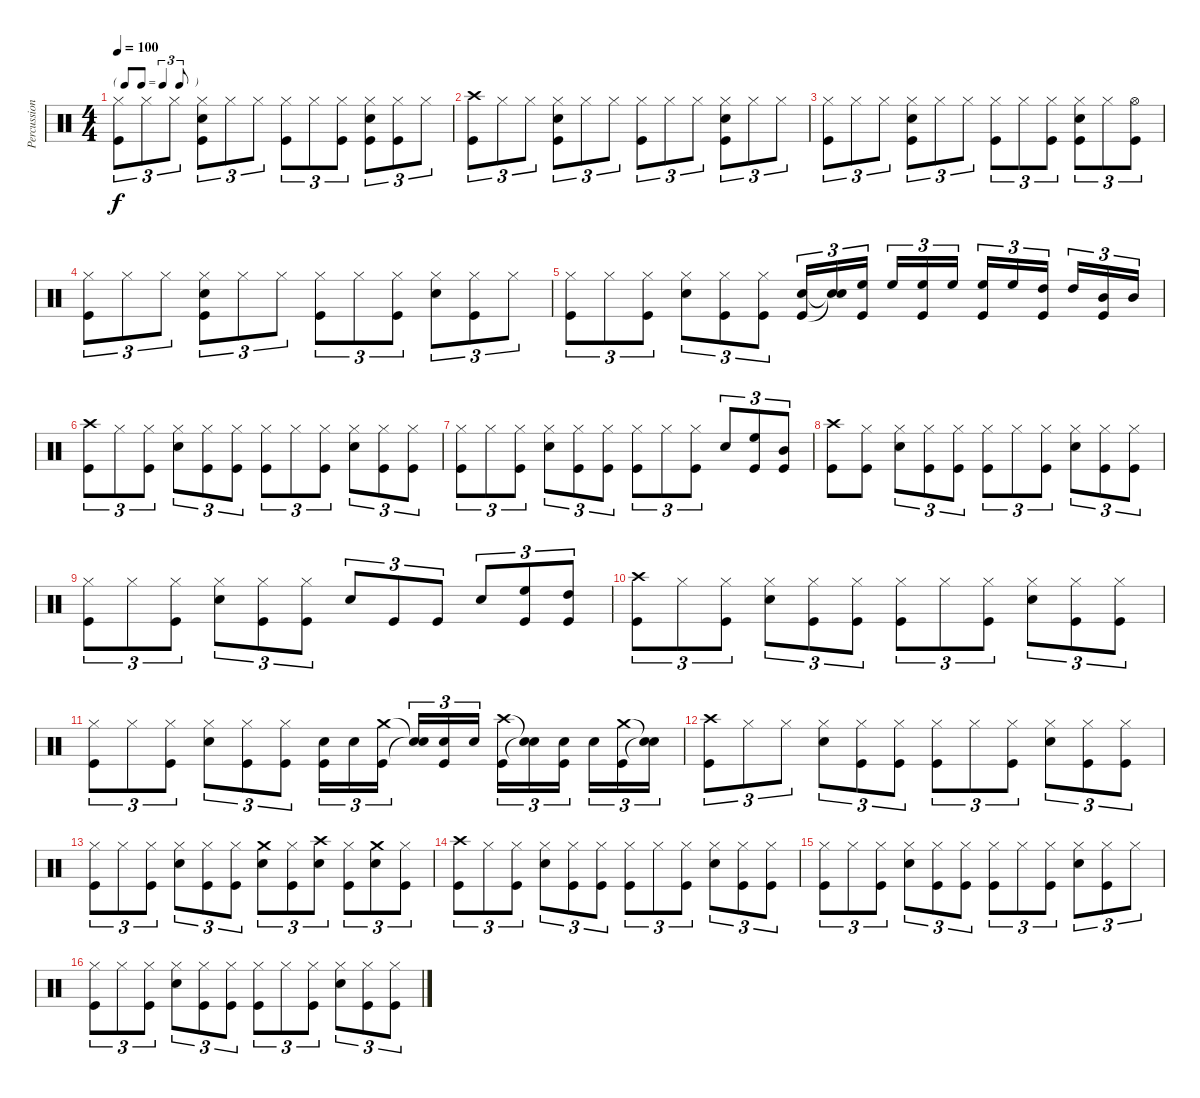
\track ("Percussions" "Percussion") {instrument percussion}
\staff {score}
\articulation defaults
\ts (4 4)
\tf triplet8th
\tempo 100
\clef neutral
\ks c
("Hi-Hat (closed)" "Kick (hit)").8{tu (3 2) dy f} "Hi-Hat (closed)".8{tu (3 2)} "Hi-Hat (closed)".8{tu (3 2)} ("Hi-Hat (closed)" "Snare (hit) 2" "Kick (hit)").8{tu (3 2)} "Hi-Hat (closed)".8{tu (3 2)} "Hi-Hat (closed)".8{tu (3 2)} ("Hi-Hat (closed)" "Kick (hit)").8{tu (3 2)} "Hi-Hat (closed)".8{tu (3 2)} ("Hi-Hat (closed)" "Kick (hit)").8{tu (3 2)} ("Hi-Hat (closed)" "Snare (hit) 2" "Kick (hit)").8{tu (3 2)} ("Hi-Hat (closed)" "Kick (hit)").8{tu (3 2)} "Hi-Hat (closed)".8{tu (3 2)} |
("Crash high (hit)" "Kick (hit)").8{tu (3 2)} "Hi-Hat (closed)".8{tu (3 2)} "Hi-Hat (closed)".8{tu (3 2)} ("Hi-Hat (closed)" "Snare (hit) 2" "Kick (hit)").8{tu (3 2)} "Hi-Hat (closed)".8{tu (3 2)} "Hi-Hat (closed)".8{tu (3 2)} ("Hi-Hat (closed)" "Kick (hit)").8{tu (3 2)} "Hi-Hat (closed)".8{tu (3 2)} "Hi-Hat (closed)".8{tu (3 2)} ("Hi-Hat (closed)" "Snare (hit) 2" "Kick (hit)").8{tu (3 2)} "Hi-Hat (closed)".8{tu (3 2)} "Hi-Hat (closed)".8{tu (3 2)} |
("Hi-Hat (closed)" "Kick (hit)").8{tu (3 2)} "Hi-Hat (closed)".8{tu (3 2)} "Hi-Hat (closed)".8{tu (3 2)} ("Hi-Hat (closed)" "Snare (hit) 2" "Kick (hit)").8{tu (3 2)} "Hi-Hat (closed)".8{tu (3 2)} "Hi-Hat (closed)".8{tu (3 2)} ("Hi-Hat (closed)" "Kick (hit)").8{tu (3 2)} "Hi-Hat (closed)".8{tu (3 2)} ("Hi-Hat (closed)" "Kick (hit)").8{tu (3 2)} ("Hi-Hat (closed)" "Snare (hit) 2" "Kick (hit)").8{tu (3 2)} "Hi-Hat (closed)".8{tu (3 2)} ("Hi-Hat (open)" "Kick (hit)").8{tu (3 2)} |
("Hi-Hat (closed)" "Kick (hit)").8{tu (3 2)} "Hi-Hat (closed)".8{tu (3 2)} "Hi-Hat (closed)".8{tu (3 2)} ("Hi-Hat (closed)" "Snare (hit) 2" "Kick (hit)").8{tu (3 2)} "Hi-Hat (closed)".8{tu (3 2)} "Hi-Hat (closed)".8{tu (3 2)} ("Hi-Hat (closed)" "Kick (hit)").8{tu (3 2)} "Hi-Hat (closed)".8{tu (3 2)} ("Hi-Hat (closed)" "Kick (hit)").8{tu (3 2)} ("Hi-Hat (closed)" "Snare (hit) 2").8{tu (3 2)} ("Hi-Hat (closed)" "Kick (hit)").8{tu (3 2)} "Hi-Hat (closed)".8{tu (3 2)} |
("Hi-Hat (closed)" "Kick (hit)").8{tu (3 2)} "Hi-Hat (closed)".8{tu (3 2)} ("Hi-Hat (closed)" "Kick (hit)").8{tu (3 2)} ("Hi-Hat (closed)" "Snare (hit) 2").8{tu (3 2)} ("Hi-Hat (closed)" "Kick (hit)").8{tu (3 2)} ("Hi-Hat (closed)" "Kick (hit)").8{tu (3 2)} ("Electric Snare (hit)" "Kick (hit)").16{tu (3 2)} ("Snare (hit)"{t} "Snare (hit)"{t}).16{tu (3 2)} ("High Floor Tom (hit)" "Kick (hit)").16{tu (3 2)} "High Floor Tom (hit)".16{tu (3 2)} ("High Floor Tom (hit)" "Kick (hit)").16{tu (3 2)} "High Floor Tom (hit)".16{tu (3 2)} ("High Floor Tom (hit)" "Kick (hit)").16{tu (3 2)} "High Floor Tom (hit)".16{tu (3 2)} ("High Tom (hit)" "Kick (hit)").16{tu (3 2)} "High Tom (hit)".16{tu (3 2)} ("Mid Tom (hit)" "Kick (hit)").16{tu (3 2)} "Mid Tom (hit)".16{tu (3 2)} |
("Crash high (hit)" "Kick (hit)").8{tu (3 2)} "Hi-Hat (closed)".8{tu (3 2)} ("Hi-Hat (closed)" "Kick (hit)").8{tu (3 2)} ("Hi-Hat (closed)" "Snare (hit) 2").8{tu (3 2)} ("Hi-Hat (closed)" "Kick (hit)").8{tu (3 2)} ("Hi-Hat (closed)" "Kick (hit)").8{tu (3 2)} ("Hi-Hat (closed)" "Kick (hit)").8{tu (3 2)} "Hi-Hat (closed)".8{tu (3 2)} ("Hi-Hat (closed)" "Kick (hit)").8{tu (3 2)} ("Hi-Hat (closed)" "Snare (hit) 2").8{tu (3 2)} ("Hi-Hat (closed)" "Kick (hit)").8{tu (3 2)} ("Hi-Hat (closed)" "Kick (hit)").8{tu (3 2)} |
("Hi-Hat (closed)" "Kick (hit)").8{tu (3 2)} "Hi-Hat (closed)".8{tu (3 2)} ("Hi-Hat (closed)" "Kick (hit)").8{tu (3 2)} ("Hi-Hat (closed)" "Snare (hit) 2").8{tu (3 2)} ("Hi-Hat (closed)" "Kick (hit)").8{tu (3 2)} ("Hi-Hat (closed)" "Kick (hit)").8{tu (3 2)} ("Hi-Hat (closed)" "Kick (hit)").8{tu (3 2)} "Hi-Hat (closed)".8{tu (3 2)} ("Hi-Hat (closed)" "Kick (hit)").8{tu (3 2)} "Snare (hit) 2".8{tu (3 2)} ("High Floor Tom (hit)" "Kick (hit)").8{tu (3 2)} ("Mid Tom (hit)" "Kick (hit)").8{tu (3 2)} |
("Crash high (hit)" "Kick (hit)").8 ("Hi-Hat (closed)" "Kick (hit)").8 ("Hi-Hat (closed)" "Snare (hit) 2").8{tu (3 2)} ("Hi-Hat (closed)" "Kick (hit)").8{tu (3 2)} ("Hi-Hat (closed)" "Kick (hit)").8{tu (3 2)} ("Hi-Hat (closed)" "Kick (hit)").8{tu (3 2)} "Hi-Hat (closed)".8{tu (3 2)} ("Hi-Hat (closed)" "Kick (hit)").8{tu (3 2)} ("Hi-Hat (closed)" "Snare (hit) 2").8{tu (3 2)} ("Hi-Hat (closed)" "Kick (hit)").8{tu (3 2)} ("Hi-Hat (closed)" "Kick (hit)").8{tu (3 2)} |
("Hi-Hat (closed)" "Kick (hit)").8{tu (3 2)} "Hi-Hat (closed)".8{tu (3 2)} ("Hi-Hat (closed)" "Kick (hit)").8{tu (3 2)} ("Hi-Hat (closed)" "Snare (hit) 2").8{tu (3 2)} ("Hi-Hat (closed)" "Kick (hit)").8{tu (3 2)} ("Hi-Hat (closed)" "Kick (hit)").8{tu (3 2)} "Electric Snare (hit)".8{tu (3 2)} "Kick (hit)".8{tu (3 2)} "Kick (hit)".8{tu (3 2)} "Snare (hit) 2".8{tu (3 2)} ("High Floor Tom (hit)" "Kick (hit)").8{tu (3 2)} ("High Tom (hit)" "Kick (hit)").8{tu (3 2)} |
("Crash high (hit)" "Kick (hit)").8{tu (3 2)} "Hi-Hat (closed)".8{tu (3 2)} ("Hi-Hat (closed)" "Kick (hit)").8{tu (3 2)} ("Hi-Hat (closed)" "Snare (hit) 2").8{tu (3 2)} ("Hi-Hat (closed)" "Kick (hit)").8{tu (3 2)} ("Hi-Hat (closed)" "Kick (hit)").8{tu (3 2)} ("Hi-Hat (closed)" "Kick (hit)").8{tu (3 2)} "Hi-Hat (closed)".8{tu (3 2)} ("Hi-Hat (closed)" "Kick (hit)").8{tu (3 2)} ("Hi-Hat (closed)" "Snare (hit) 2").8{tu (3 2)} ("Hi-Hat (closed)" "Kick (hit)").8{tu (3 2)} ("Hi-Hat (closed)" "Kick (hit)").8{tu (3 2)} |
("Hi-Hat (closed)" "Kick (hit)").8{tu (3 2)} "Hi-Hat (closed)".8{tu (3 2)} ("Hi-Hat (closed)" "Kick (hit)").8{tu (3 2)} ("Hi-Hat (closed)" "Snare (hit) 2").8{tu (3 2)} ("Hi-Hat (closed)" "Kick (hit)").8{tu (3 2)} ("Hi-Hat (closed)" "Kick (hit)").8{tu (3 2)} ("Electric Snare (hit)" "Kick (hit)").16{tu (3 2)} "Electric Snare (hit)".16{tu (3 2)} ("Crash medium (hit)" "Kick (hit)").16{tu (3 2)} ("Snare (hit)"{t} "Snare (hit)"{t}).16{tu (3 2)} ("Electric Snare (hit)" "Kick (hit)").16{tu (3 2)} "Electric Snare (hit)".16{tu (3 2)} ("Crash high (hit)" "Kick (hit)").16{tu (3 2)} ("Snare (hit)"{t} "Snare (hit)"{t}).16{tu (3 2)} ("Electric Snare (hit)" "Kick (hit)").16{tu (3 2)} "Electric Snare (hit)".16{tu (3 2)} ("Crash medium (hit)" "Kick (hit)").16{tu (3 2)} ("Snare (hit)"{t} "Snare (hit)"{t}).16{tu (3 2)} |
("Crash high (hit)" "Kick (hit)").8{tu (3 2)} "Hi-Hat (closed)".8{tu (3 2)} "Hi-Hat (closed)".8{tu (3 2)} ("Hi-Hat (closed)" "Snare (hit) 2").8{tu (3 2)} ("Hi-Hat (closed)" "Kick (hit)").8{tu (3 2)} ("Hi-Hat (closed)" "Kick (hit)").8{tu (3 2)} ("Hi-Hat (closed)" "Kick (hit)").8{tu (3 2)} "Hi-Hat (closed)".8{tu (3 2)} ("Hi-Hat (closed)" "Kick (hit)").8{tu (3 2)} ("Hi-Hat (closed)" "Snare (hit) 2").8{tu (3 2)} ("Hi-Hat (closed)" "Kick (hit)").8{tu (3 2)} ("Hi-Hat (closed)" "Kick (hit)").8{tu (3 2)} |
("Hi-Hat (closed)" "Kick (hit)").8{tu (3 2)} "Hi-Hat (closed)".8{tu (3 2)} ("Hi-Hat (closed)" "Kick (hit)").8{tu (3 2)} ("Hi-Hat (closed)" "Snare (hit) 2").8{tu (3 2)} ("Hi-Hat (closed)" "Kick (hit)").8{tu (3 2)} ("Hi-Hat (closed)" "Kick (hit)").8{tu (3 2)} ("Crash medium (hit)" "Snare (hit) 2").8{tu (3 2)} ("Hi-Hat (closed)" "Kick (hit)").8{tu (3 2)} ("Crash high (hit)" "Snare (hit) 2").8{tu (3 2)} ("Hi-Hat (closed)" "Kick (hit)").8{tu (3 2)} ("Crash medium (hit)" "Snare (hit) 2").8{tu (3 2)} ("Hi-Hat (closed)" "Kick (hit)").8{tu (3 2)} |
("Crash high (hit)" "Kick (hit)").8{tu (3 2)} "Hi-Hat (closed)".8{tu (3 2)} ("Hi-Hat (closed)" "Kick (hit)").8{tu (3 2)} ("Hi-Hat (closed)" "Snare (hit) 2").8{tu (3 2)} ("Hi-Hat (closed)" "Kick (hit)").8{tu (3 2)} ("Hi-Hat (closed)" "Kick (hit)").8{tu (3 2)} ("Hi-Hat (closed)" "Kick (hit)").8{tu (3 2)} "Hi-Hat (closed)".8{tu (3 2)} ("Hi-Hat (closed)" "Kick (hit)").8{tu (3 2)} ("Hi-Hat (closed)" "Snare (hit) 2").8{tu (3 2)} ("Hi-Hat (closed)" "Kick (hit)").8{tu (3 2)} ("Hi-Hat (closed)" "Kick (hit)").8{tu (3 2)} |
("Hi-Hat (closed)" "Kick (hit)").8{tu (3 2)} "Hi-Hat (closed)".8{tu (3 2)} ("Hi-Hat (closed)" "Kick (hit)").8{tu (3 2)} ("Hi-Hat (closed)" "Snare (hit) 2").8{tu (3 2)} ("Hi-Hat (closed)" "Kick (hit)").8{tu (3 2)} ("Hi-Hat (closed)" "Kick (hit)").8{tu (3 2)} ("Hi-Hat (closed)" "Kick (hit)").8{tu (3 2)} "Hi-Hat (closed)".8{tu (3 2)} ("Hi-Hat (closed)" "Kick (hit)").8{tu (3 2)} ("Hi-Hat (closed)" "Snare (hit) 2").8{tu (3 2)} ("Hi-Hat (closed)" "Kick (hit)").8{tu (3 2)} "Hi-Hat (closed)".8{tu (3 2)} |
("Hi-Hat (closed)" "Kick (hit)").8{tu (3 2)} "Hi-Hat (closed)".8{tu (3 2)} ("Hi-Hat (closed)" "Kick (hit)").8{tu (3 2)} ("Hi-Hat (closed)" "Snare (hit) 2").8{tu (3 2)} ("Hi-Hat (closed)" "Kick (hit)").8{tu (3 2)} ("Hi-Hat (closed)" "Kick (hit)").8{tu (3 2)} ("Hi-Hat (closed)" "Kick (hit)").8{tu (3 2)} "Hi-Hat (closed)".8{tu (3 2)} ("Hi-Hat (closed)" "Kick (hit)").8{tu (3 2)} ("Hi-Hat (closed)" "Snare (hit) 2").8{tu (3 2)} ("Hi-Hat (closed)" "Kick (hit)").8{tu (3 2)} ("Hi-Hat (closed)" "Kick (hit)").8{tu (3 2)}
